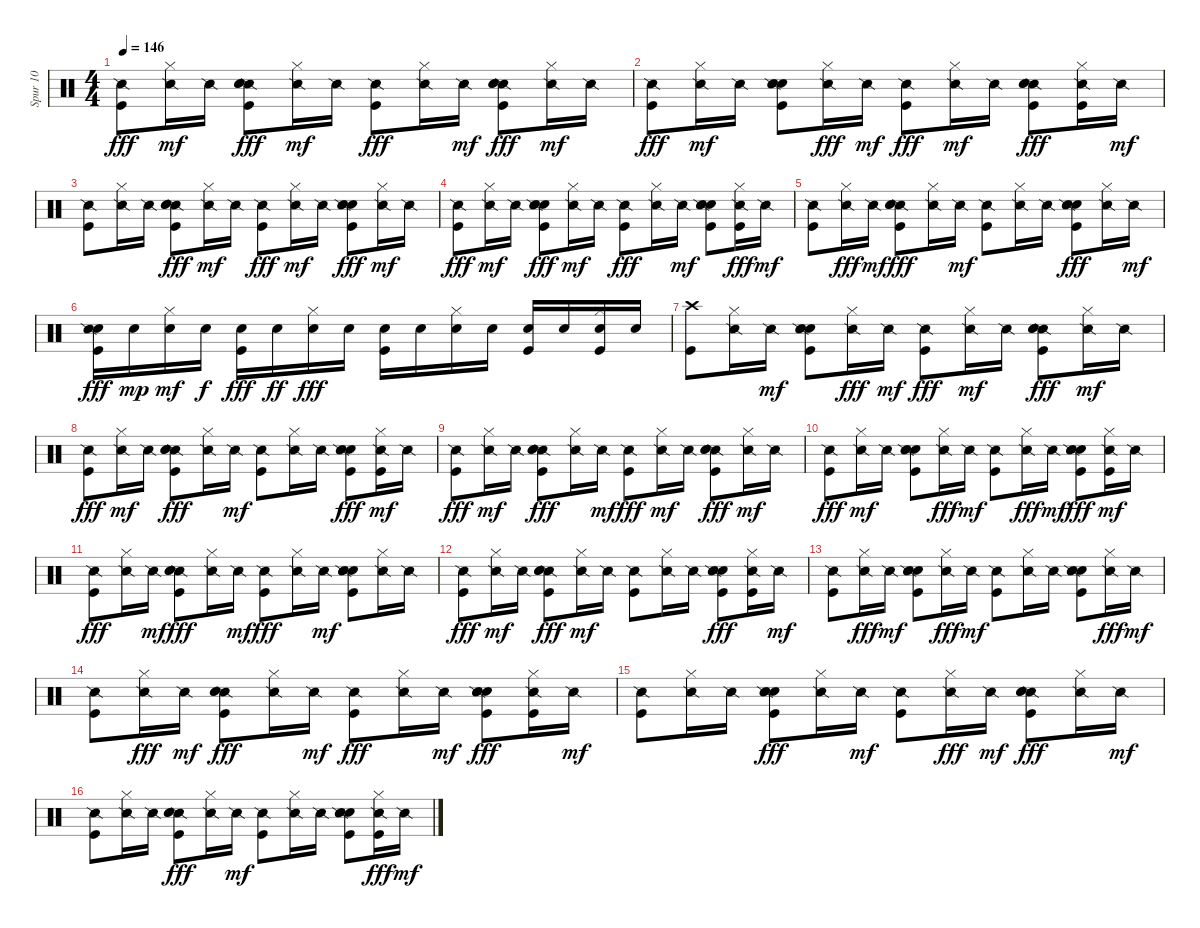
\track ("Spur 10" "Spur 10") {instrument percussion}
\staff {score}
\articulation defaults
\ts (4 4)
\tempo 146
\clef neutral
\ks c
("Snare (side stick) 2" "Kick (hit)").8{dy fff} ("Hi-Hat (closed)" "Snare (side stick) 2").16{dy mf} "Snare (side stick) 2".16 ("Snare (side stick) 2" "Electric Snare (hit)" "Hand Clap (hit)" "Kick (hit)").8{dy fff} ("Hi-Hat (closed)" "Snare (side stick) 2").16{dy mf} "Snare (side stick) 2".16 ("Snare (side stick) 2" "Kick (hit)").8{dy fff} ("Snare (side stick) 2" "Hi-Hat (closed)").16 "Snare (side stick) 2".16{dy mf} ("Snare (side stick) 2" "Kick (hit)" "Electric Snare (hit)" "Hand Clap (hit)").8{dy fff} ("Hi-Hat (closed)" "Snare (side stick) 2").16{dy mf} "Snare (side stick) 2".16 |
("Snare (side stick) 2" "Kick (hit)").8{dy fff} ("Hi-Hat (closed)" "Snare (side stick) 2").16{dy mf} "Snare (side stick) 2".16 ("Hand Clap (hit)" "Electric Snare (hit)" "Kick (hit)" "Snare (side stick) 2").8 ("Snare (side stick) 2" "Hi-Hat (closed)").16{dy fff} "Snare (side stick) 2".16{dy mf} ("Snare (side stick) 2" "Kick (hit)").8{dy fff} ("Hi-Hat (closed)" "Snare (side stick) 2").16{dy mf} "Snare (side stick) 2".16 ("Snare (side stick) 2" "Electric Snare (hit)" "Kick (hit)" "Hand Clap (hit)").8{dy fff} ("Snare (side stick) 2" "Hi-Hat (closed)" "Kick (hit)").16 "Snare (side stick) 2".16{dy mf} |
("Kick (hit)" "Snare (side stick) 2").8 ("Hi-Hat (closed)" "Snare (side stick) 2").16 "Snare (side stick) 2".16 ("Snare (side stick) 2" "Kick (hit)" "Electric Snare (hit)" "Hand Clap (hit)").8{dy fff} ("Hi-Hat (closed)" "Snare (side stick) 2").16{dy mf} "Snare (side stick) 2".16 ("Snare (side stick) 2" "Kick (hit)").8{dy fff} ("Hi-Hat (closed)" "Snare (side stick) 2").16{dy mf} "Snare (side stick) 2".16 ("Electric Snare (hit)" "Hand Clap (hit)" "Snare (side stick) 2" "Kick (hit)").8{dy fff} ("Hi-Hat (closed)" "Snare (side stick) 2").16{dy mf} "Snare (side stick) 2".16 |
("Snare (side stick) 2" "Kick (hit)").8{dy fff} ("Hi-Hat (closed)" "Snare (side stick) 2").16{dy mf} "Snare (side stick) 2".16 ("Electric Snare (hit)" "Snare (side stick) 2" "Hand Clap (hit)" "Kick (hit)").8{dy fff} ("Hi-Hat (closed)" "Snare (side stick) 2").16{dy mf} "Snare (side stick) 2".16 ("Snare (side stick) 2" "Kick (hit)").8{dy fff} ("Snare (side stick) 2" "Hi-Hat (closed)").16 "Snare (side stick) 2".16{dy mf} ("Kick (hit)" "Hand Clap (hit)" "Electric Snare (hit)" "Snare (side stick) 2").8 ("Snare (side stick) 2" "Kick (hit)" "Hi-Hat (closed)").16{dy fff} "Snare (side stick) 2".16{dy mf} |
("Kick (hit)" "Snare (side stick) 2").8 ("Snare (side stick) 2" "Hi-Hat (closed)").16{dy fff} "Snare (side stick) 2".16{dy mf} ("Snare (side stick) 2" "Electric Snare (hit)" "Kick (hit)" "Hand Clap (hit)").8{dy fff} ("Snare (side stick) 2" "Hi-Hat (closed)").16 "Snare (side stick) 2".16{dy mf} ("Kick (hit)" "Snare (side stick) 2").8 ("Hi-Hat (closed)" "Snare (side stick) 2").16 "Snare (side stick) 2".16 ("Hand Clap (hit)" "Electric Snare (hit)" "Snare (side stick) 2" "Kick (hit)").8{dy fff} ("Snare (side stick) 2" "Hi-Hat (closed)").16 "Snare (side stick) 2".16{dy mf} |
("Snare (hit) 2" "Snare (side stick) 2" "Kick (hit)").16{dy fff} "Snare (hit) 2".16{dy mp} ("Hi-Hat (closed)" "Snare (hit) 2").16{dy mf} "Snare (hit) 2".16{dy f} ("Kick (hit)" "Snare (hit) 2").16{dy fff} "Snare (hit) 2".16{dy ff} ("Snare (hit) 2" "Hi-Hat (closed)").16{dy fff} "Snare (hit) 2".16 ("Kick (hit)" "Snare (hit) 2").16 "Snare (hit) 2".16 ("Hi-Hat (closed)" "Snare (hit) 2").16 "Snare (hit) 2".16 ("Kick (hit)" "Snare (hit) 2").16 "Snare (hit) 2".16 ("Hi-Hat (closed)" "Snare (hit) 2" "Kick (hit)").16 "Snare (hit) 2".16 |
("Crash high (hit)" "Kick (hit)").8 ("Snare (side stick) 2" "Hi-Hat (closed)").16 "Snare (side stick) 2".16{dy mf} ("Electric Snare (hit)" "Kick (hit)" "Hand Clap (hit)" "Snare (side stick) 2").8 ("Snare (side stick) 2" "Hi-Hat (closed)").16{dy fff} "Snare (side stick) 2".16{dy mf} ("Snare (side stick) 2" "Kick (hit)").8{dy fff} ("Hi-Hat (closed)" "Snare (side stick) 2").16{dy mf} "Snare (side stick) 2".16 ("Snare (side stick) 2" "Electric Snare (hit)" "Kick (hit)" "Hand Clap (hit)").8{dy fff} ("Hi-Hat (closed)" "Snare (side stick) 2").16{dy mf} "Snare (side stick) 2".16 |
("Snare (side stick) 2" "Kick (hit)").8{dy fff} ("Hi-Hat (closed)" "Snare (side stick) 2").16{dy mf} "Snare (side stick) 2".16 ("Snare (side stick) 2" "Electric Snare (hit)" "Hand Clap (hit)" "Kick (hit)").8{dy fff} ("Snare (side stick) 2" "Hi-Hat (closed)").16 "Snare (side stick) 2".16{dy mf} ("Kick (hit)" "Snare (side stick) 2").8 ("Hi-Hat (closed)" "Snare (side stick) 2").16 "Snare (side stick) 2".16 ("Hand Clap (hit)" "Snare (side stick) 2" "Electric Snare (hit)" "Kick (hit)").8{dy fff} ("Hi-Hat (closed)" "Kick (hit)" "Snare (side stick) 2").16{dy mf} "Snare (side stick) 2".16 |
("Snare (side stick) 2" "Kick (hit)").8{dy fff} ("Hi-Hat (closed)" "Snare (side stick) 2").16{dy mf} "Snare (side stick) 2".16 ("Snare (side stick) 2" "Hand Clap (hit)" "Kick (hit)" "Electric Snare (hit)").8{dy fff} ("Snare (side stick) 2" "Hi-Hat (closed)").16 "Snare (side stick) 2".16{dy mf} ("Snare (side stick) 2" "Kick (hit)").8{dy fff} ("Hi-Hat (closed)" "Snare (side stick) 2").16{dy mf} "Snare (side stick) 2".16 ("Snare (side stick) 2" "Kick (hit)" "Electric Snare (hit)" "Hand Clap (hit)").8{dy fff} ("Hi-Hat (closed)" "Snare (side stick) 2").16{dy mf} "Snare (side stick) 2".16 |
("Snare (side stick) 2" "Kick (hit)").8{dy fff} ("Hi-Hat (closed)" "Snare (side stick) 2").16{dy mf} "Snare (side stick) 2".16 ("Kick (hit)" "Hand Clap (hit)" "Electric Snare (hit)" "Snare (side stick) 2").8 ("Snare (side stick) 2" "Hi-Hat (closed)").16{dy fff} "Snare (side stick) 2".16{dy mf} ("Kick (hit)" "Snare (side stick) 2").8 ("Snare (side stick) 2" "Hi-Hat (closed)").16{dy fff} "Snare (side stick) 2".16{dy mf} ("Kick (hit)" "Electric Snare (hit)" "Snare (side stick) 2" "Hand Clap (hit)").8{dy fff} ("Kick (hit)" "Hi-Hat (closed)" "Snare (side stick) 2").16{dy mf} "Snare (side stick) 2".16 |
("Snare (side stick) 2" "Kick (hit)").8{dy fff} ("Snare (side stick) 2" "Hi-Hat (closed)").16 "Snare (side stick) 2".16{dy mf} ("Snare (side stick) 2" "Hand Clap (hit)" "Electric Snare (hit)" "Kick (hit)").8{dy fff} ("Snare (side stick) 2" "Hi-Hat (closed)").16 "Snare (side stick) 2".16{dy mf} ("Snare (side stick) 2" "Kick (hit)").8{dy fff} ("Snare (side stick) 2" "Hi-Hat (closed)").16 "Snare (side stick) 2".16{dy mf} ("Hand Clap (hit)" "Kick (hit)" "Snare (side stick) 2" "Electric Snare (hit)").8 ("Hi-Hat (closed)" "Snare (side stick) 2").16 "Snare (side stick) 2".16 |
("Snare (side stick) 2" "Kick (hit)").8{dy fff} ("Hi-Hat (closed)" "Snare (side stick) 2").16{dy mf} "Snare (side stick) 2".16 ("Kick (hit)" "Snare (side stick) 2" "Hand Clap (hit)" "Electric Snare (hit)").8{dy fff} ("Hi-Hat (closed)" "Snare (side stick) 2").16{dy mf} "Snare (side stick) 2".16 ("Kick (hit)" "Snare (side stick) 2").8 ("Hi-Hat (closed)" "Snare (side stick) 2").16 "Snare (side stick) 2".16 ("Hand Clap (hit)" "Snare (side stick) 2" "Electric Snare (hit)" "Kick (hit)").8{dy fff} ("Kick (hit)" "Snare (side stick) 2" "Hi-Hat (closed)").16 "Snare (side stick) 2".16{dy mf} |
("Kick (hit)" "Snare (side stick) 2").8 ("Snare (side stick) 2" "Hi-Hat (closed)").16{dy fff} "Snare (side stick) 2".16{dy mf} ("Hand Clap (hit)" "Kick (hit)" "Snare (side stick) 2" "Electric Snare (hit)").8 ("Snare (side stick) 2" "Hi-Hat (closed)").16{dy fff} "Snare (side stick) 2".16{dy mf} ("Kick (hit)" "Snare (side stick) 2").8 ("Hi-Hat (closed)" "Snare (side stick) 2").16 "Snare (side stick) 2".16 ("Electric Snare (hit)" "Kick (hit)" "Hand Clap (hit)" "Snare (side stick) 2").8 ("Snare (side stick) 2" "Hi-Hat (closed)").16{dy fff} "Snare (side stick) 2".16{dy mf} |
("Kick (hit)" "Snare (side stick) 2").8 ("Snare (side stick) 2" "Hi-Hat (closed)").16{dy fff} "Snare (side stick) 2".16{dy mf} ("Snare (side stick) 2" "Kick (hit)" "Hand Clap (hit)" "Electric Snare (hit)").8{dy fff} ("Snare (side stick) 2" "Hi-Hat (closed)").16 "Snare (side stick) 2".16{dy mf} ("Snare (side stick) 2" "Kick (hit)").8{dy fff} ("Snare (side stick) 2" "Hi-Hat (closed)").16 "Snare (side stick) 2".16{dy mf} ("Electric Snare (hit)" "Kick (hit)" "Snare (side stick) 2" "Hand Clap (hit)").8{dy fff} ("Hi-Hat (closed)" "Snare (side stick) 2" "Kick (hit)").16 "Snare (side stick) 2".16{dy mf} |
("Kick (hit)" "Snare (side stick) 2").8 ("Hi-Hat (closed)" "Snare (side stick) 2").16 "Snare (side stick) 2".16 ("Kick (hit)" "Electric Snare (hit)" "Snare (side stick) 2" "Hand Clap (hit)").8{dy fff} ("Snare (side stick) 2" "Hi-Hat (closed)").16 "Snare (side stick) 2".16{dy mf} ("Kick (hit)" "Snare (side stick) 2").8 ("Snare (side stick) 2" "Hi-Hat (closed)").16{dy fff} "Snare (side stick) 2".16{dy mf} ("Kick (hit)" "Snare (side stick) 2" "Electric Snare (hit)" "Hand Clap (hit)").8{dy fff} ("Snare (side stick) 2" "Hi-Hat (closed)").16 "Snare (side stick) 2".16{dy mf} |
("Kick (hit)" "Snare (side stick) 2").8 ("Hi-Hat (closed)" "Snare (side stick) 2").16 "Snare (side stick) 2".16 ("Snare (side stick) 2" "Kick (hit)" "Hand Clap (hit)" "Electric Snare (hit)").8{dy fff} ("Snare (side stick) 2" "Hi-Hat (closed)").16 "Snare (side stick) 2".16{dy mf} ("Kick (hit)" "Snare (side stick) 2").8 ("Hi-Hat (closed)" "Snare (side stick) 2").16 "Snare (side stick) 2".16 ("Hand Clap (hit)" "Kick (hit)" "Snare (side stick) 2" "Electric Snare (hit)").8 ("Kick (hit)" "Snare (side stick) 2" "Hi-Hat (closed)").16{dy fff} "Snare (side stick) 2".16{dy mf}
